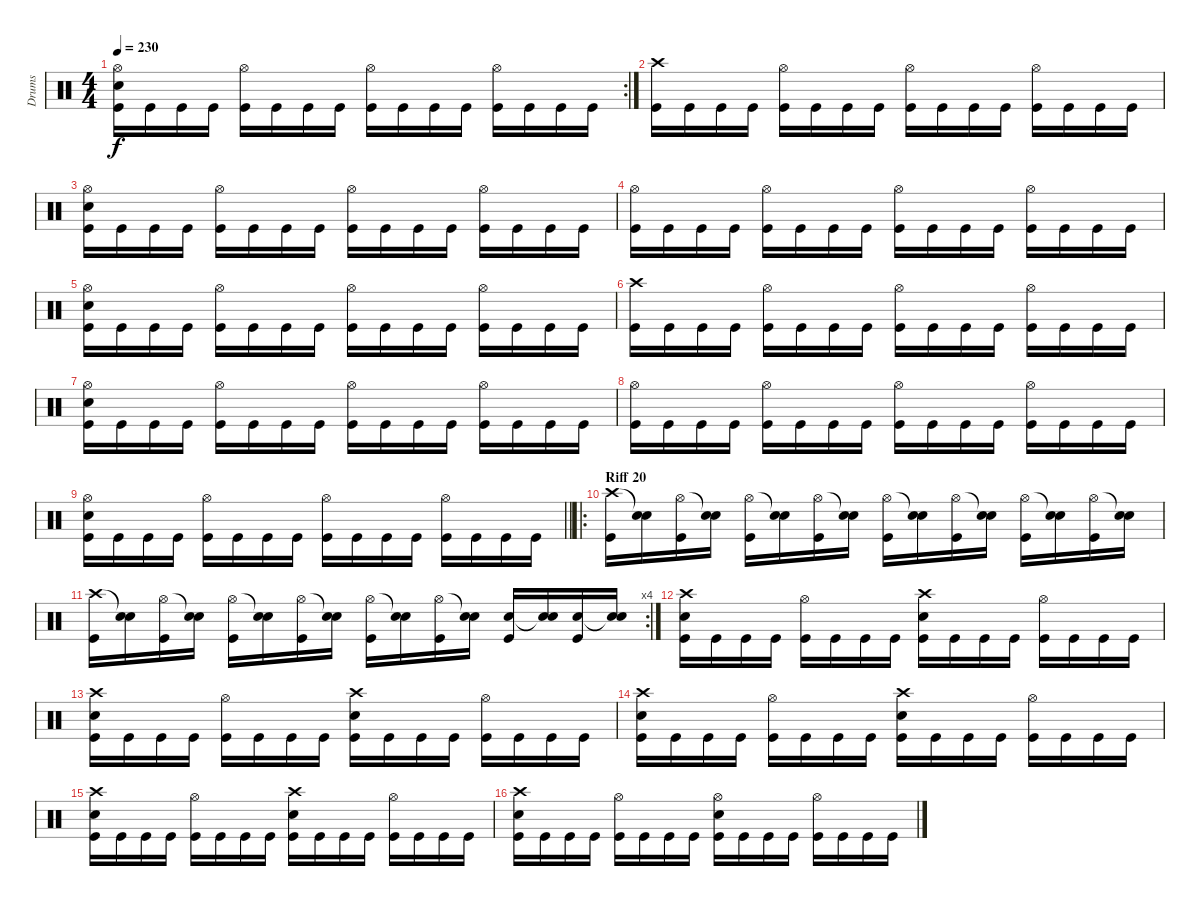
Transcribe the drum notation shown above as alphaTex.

\track ("Drums" "Drums") {instrument percussion}
\staff {score}
\articulation defaults
\rc 2
\ts (4 4)
\tempo 230
\clef neutral
\ks c
("Hi-Hat (open)" "Electric Snare (hit)" "Kick (hit)").16{dy f} "Kick (hit)".16 "Kick (hit)".16 "Kick (hit)".16 ("Hi-Hat (open)" "Kick (hit)").16 "Kick (hit)".16 "Kick (hit)".16 "Kick (hit)".16 ("Hi-Hat (open)" "Kick (hit)").16 "Kick (hit)".16 "Kick (hit)".16 "Kick (hit)".16 ("Hi-Hat (open)" "Kick (hit)").16 "Kick (hit)".16 "Kick (hit)".16 "Kick (hit)".16 |
("Crash high (hit)" "Kick (hit)").16 "Kick (hit)".16 "Kick (hit)".16 "Kick (hit)".16 ("Hi-Hat (open)" "Kick (hit)").16 "Kick (hit)".16 "Kick (hit)".16 "Kick (hit)".16 ("Hi-Hat (open)" "Kick (hit)").16 "Kick (hit)".16 "Kick (hit)".16 "Kick (hit)".16 ("Hi-Hat (open)" "Kick (hit)").16 "Kick (hit)".16 "Kick (hit)".16 "Kick (hit)".16 |
("Hi-Hat (open)" "Electric Snare (hit)" "Kick (hit)").16 "Kick (hit)".16 "Kick (hit)".16 "Kick (hit)".16 ("Hi-Hat (open)" "Kick (hit)").16 "Kick (hit)".16 "Kick (hit)".16 "Kick (hit)".16 ("Hi-Hat (open)" "Kick (hit)").16 "Kick (hit)".16 "Kick (hit)".16 "Kick (hit)".16 ("Hi-Hat (open)" "Kick (hit)").16 "Kick (hit)".16 "Kick (hit)".16 "Kick (hit)".16 |
("Hi-Hat (open)" "Kick (hit)").16 "Kick (hit)".16 "Kick (hit)".16 "Kick (hit)".16 ("Hi-Hat (open)" "Kick (hit)").16 "Kick (hit)".16 "Kick (hit)".16 "Kick (hit)".16 ("Hi-Hat (open)" "Kick (hit)").16 "Kick (hit)".16 "Kick (hit)".16 "Kick (hit)".16 ("Hi-Hat (open)" "Kick (hit)").16 "Kick (hit)".16 "Kick (hit)".16 "Kick (hit)".16 |
("Hi-Hat (open)" "Electric Snare (hit)" "Kick (hit)").16 "Kick (hit)".16 "Kick (hit)".16 "Kick (hit)".16 ("Hi-Hat (open)" "Kick (hit)").16 "Kick (hit)".16 "Kick (hit)".16 "Kick (hit)".16 ("Hi-Hat (open)" "Kick (hit)").16 "Kick (hit)".16 "Kick (hit)".16 "Kick (hit)".16 ("Hi-Hat (open)" "Kick (hit)").16 "Kick (hit)".16 "Kick (hit)".16 "Kick (hit)".16 |
("Crash high (hit)" "Kick (hit)").16 "Kick (hit)".16 "Kick (hit)".16 "Kick (hit)".16 ("Hi-Hat (open)" "Kick (hit)").16 "Kick (hit)".16 "Kick (hit)".16 "Kick (hit)".16 ("Hi-Hat (open)" "Kick (hit)").16 "Kick (hit)".16 "Kick (hit)".16 "Kick (hit)".16 ("Hi-Hat (open)" "Kick (hit)").16 "Kick (hit)".16 "Kick (hit)".16 "Kick (hit)".16 |
("Hi-Hat (open)" "Electric Snare (hit)" "Kick (hit)").16 "Kick (hit)".16 "Kick (hit)".16 "Kick (hit)".16 ("Hi-Hat (open)" "Kick (hit)").16 "Kick (hit)".16 "Kick (hit)".16 "Kick (hit)".16 ("Hi-Hat (open)" "Kick (hit)").16 "Kick (hit)".16 "Kick (hit)".16 "Kick (hit)".16 ("Hi-Hat (open)" "Kick (hit)").16 "Kick (hit)".16 "Kick (hit)".16 "Kick (hit)".16 |
("Hi-Hat (open)" "Kick (hit)").16 "Kick (hit)".16 "Kick (hit)".16 "Kick (hit)".16 ("Hi-Hat (open)" "Kick (hit)").16 "Kick (hit)".16 "Kick (hit)".16 "Kick (hit)".16 ("Hi-Hat (open)" "Kick (hit)").16 "Kick (hit)".16 "Kick (hit)".16 "Kick (hit)".16 ("Hi-Hat (open)" "Kick (hit)").16 "Kick (hit)".16 "Kick (hit)".16 "Kick (hit)".16 |
\barLineRight lightlight
("Hi-Hat (open)" "Electric Snare (hit)" "Kick (hit)").16 "Kick (hit)".16 "Kick (hit)".16 "Kick (hit)".16 ("Hi-Hat (open)" "Kick (hit)").16 "Kick (hit)".16 "Kick (hit)".16 "Kick (hit)".16 ("Hi-Hat (open)" "Kick (hit)").16 "Kick (hit)".16 "Kick (hit)".16 "Kick (hit)".16 ("Hi-Hat (open)" "Kick (hit)").16 "Kick (hit)".16 "Kick (hit)".16 "Kick (hit)".16 |
\ro
\section ("" "Riff 20")
("Crash high (hit)" "Kick (hit)").16 ("Snare (hit)"{t} "Electric Snare (hit)").16 ("Hi-Hat (open)" "Kick (hit)").16 ("Snare (hit)"{t} "Electric Snare (hit)").16 ("Hi-Hat (open)" "Kick (hit)").16 ("Snare (hit)"{t} "Electric Snare (hit)").16 ("Hi-Hat (open)" "Kick (hit)").16 ("Snare (hit)"{t} "Electric Snare (hit)").16 ("Hi-Hat (open)" "Kick (hit)").16 ("Snare (hit)"{t} "Electric Snare (hit)").16 ("Hi-Hat (open)" "Kick (hit)").16 ("Snare (hit)"{t} "Electric Snare (hit)").16 ("Hi-Hat (open)" "Kick (hit)").16 ("Snare (hit)"{t} "Electric Snare (hit)").16 ("Hi-Hat (open)" "Kick (hit)").16 ("Snare (hit)"{t} "Electric Snare (hit)").16 |
\rc 4
("Crash high (hit)" "Kick (hit)").16 ("Snare (hit)"{t} "Electric Snare (hit)").16 ("Hi-Hat (open)" "Kick (hit)").16 ("Snare (hit)"{t} "Electric Snare (hit)").16 ("Hi-Hat (open)" "Kick (hit)").16 ("Snare (hit)"{t} "Electric Snare (hit)").16 ("Hi-Hat (open)" "Kick (hit)").16 ("Snare (hit)"{t} "Electric Snare (hit)").16 ("Hi-Hat (open)" "Kick (hit)").16 ("Snare (hit)"{t} "Electric Snare (hit)").16 ("Hi-Hat (open)" "Kick (hit)").16 ("Snare (hit)"{t} "Electric Snare (hit)").16 ("Electric Snare (hit)" "Kick (hit)").16 ("Snare (hit)"{t} "Electric Snare (hit)").16 ("Electric Snare (hit)" "Kick (hit)").16 ("Snare (hit)"{t} "Electric Snare (hit)").16 |
("Crash high (hit)" "Electric Snare (hit)" "Kick (hit)").16 "Kick (hit)".16 "Kick (hit)".16 "Kick (hit)".16 ("Hi-Hat (open)" "Kick (hit)").16 "Kick (hit)".16 "Kick (hit)".16 "Kick (hit)".16 ("Crash high (hit)" "Electric Snare (hit)" "Kick (hit)").16 "Kick (hit)".16 "Kick (hit)".16 "Kick (hit)".16 ("Hi-Hat (open)" "Kick (hit)").16 "Kick (hit)".16 "Kick (hit)".16 "Kick (hit)".16 |
("Crash high (hit)" "Electric Snare (hit)" "Kick (hit)").16 "Kick (hit)".16 "Kick (hit)".16 "Kick (hit)".16 ("Hi-Hat (open)" "Kick (hit)").16 "Kick (hit)".16 "Kick (hit)".16 "Kick (hit)".16 ("Crash high (hit)" "Electric Snare (hit)" "Kick (hit)").16 "Kick (hit)".16 "Kick (hit)".16 "Kick (hit)".16 ("Hi-Hat (open)" "Kick (hit)").16 "Kick (hit)".16 "Kick (hit)".16 "Kick (hit)".16 |
("Crash high (hit)" "Electric Snare (hit)" "Kick (hit)").16 "Kick (hit)".16 "Kick (hit)".16 "Kick (hit)".16 ("Hi-Hat (open)" "Kick (hit)").16 "Kick (hit)".16 "Kick (hit)".16 "Kick (hit)".16 ("Crash high (hit)" "Electric Snare (hit)" "Kick (hit)").16 "Kick (hit)".16 "Kick (hit)".16 "Kick (hit)".16 ("Hi-Hat (open)" "Kick (hit)").16 "Kick (hit)".16 "Kick (hit)".16 "Kick (hit)".16 |
("Crash high (hit)" "Electric Snare (hit)" "Kick (hit)").16 "Kick (hit)".16 "Kick (hit)".16 "Kick (hit)".16 ("Hi-Hat (open)" "Kick (hit)").16 "Kick (hit)".16 "Kick (hit)".16 "Kick (hit)".16 ("Crash high (hit)" "Electric Snare (hit)" "Kick (hit)").16 "Kick (hit)".16 "Kick (hit)".16 "Kick (hit)".16 ("Hi-Hat (open)" "Kick (hit)").16 "Kick (hit)".16 "Kick (hit)".16 "Kick (hit)".16 |
("Crash high (hit)" "Electric Snare (hit)" "Kick (hit)").16 "Kick (hit)".16 "Kick (hit)".16 "Kick (hit)".16 ("Hi-Hat (open)" "Kick (hit)").16 "Kick (hit)".16 "Kick (hit)".16 "Kick (hit)".16 ("Hi-Hat (open)" "Electric Snare (hit)" "Kick (hit)").16 "Kick (hit)".16 "Kick (hit)".16 "Kick (hit)".16 ("Hi-Hat (open)" "Kick (hit)").16 "Kick (hit)".16 "Kick (hit)".16 "Kick (hit)".16
